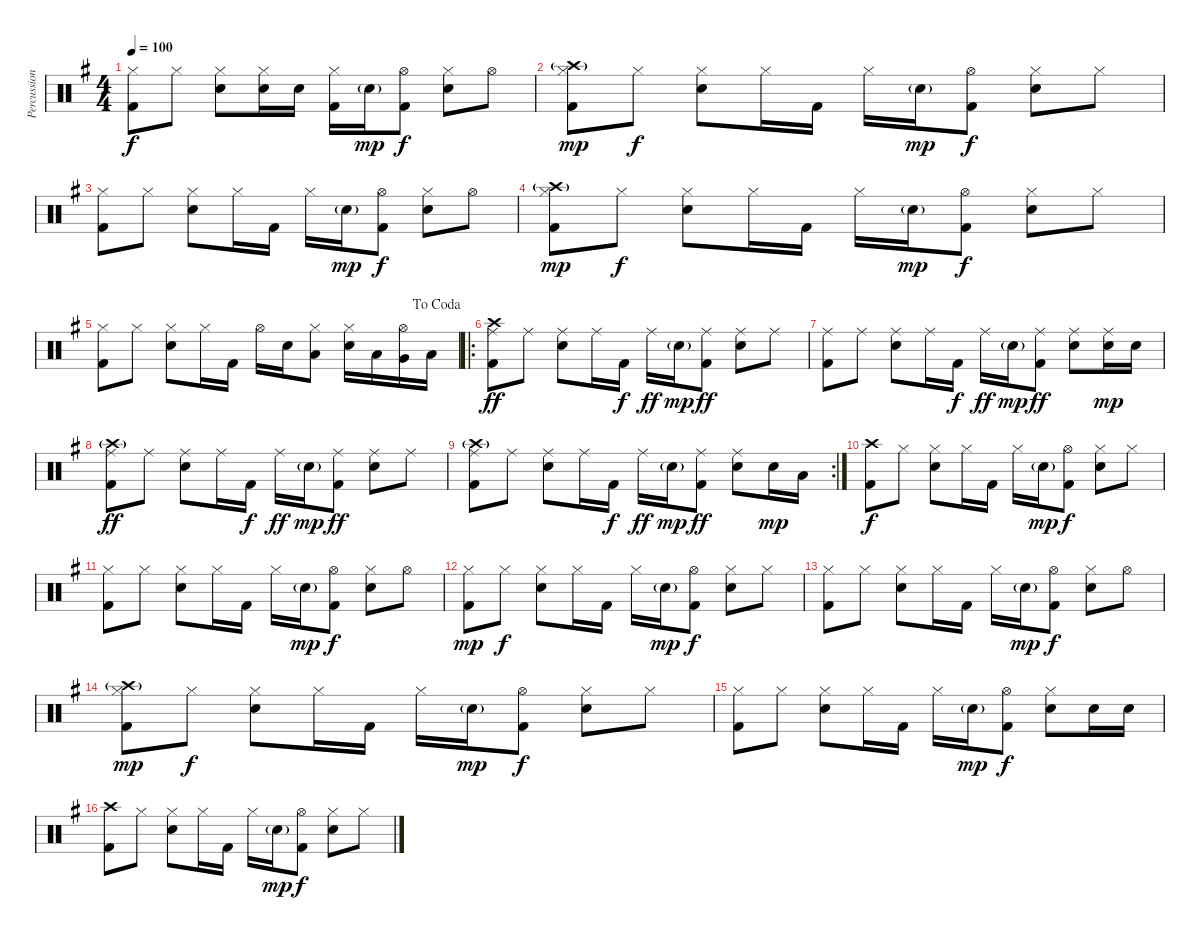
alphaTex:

\track ("Percussion" "Percussion") {instrument percussion}
\staff {score}
\articulation defaults
\ts (4 4)
\tempo 100
\clef neutral
\ks g
("Hi-Hat (closed)" "Kick (hit) 2").8{dy f} "Hi-Hat (closed)".8 ("Hi-Hat (closed)" "Electric Snare (hit)").8 ("Hi-Hat (closed)" "Electric Snare (hit)").16 "Electric Snare (hit)".16 ("Hi-Hat (closed)" "Kick (hit) 2").16 "Electric Snare (hit)"{g}.16{dy mp} ("Hi-Hat (open)" "Kick (hit) 2").8{dy f} ("Hi-Hat (closed)" "Electric Snare (hit)").8 "Hi-Hat (open)".8 |
("Crash high (hit)"{g} "Hi-Hat (closed)" "Kick (hit) 2").8{dy mp} "Hi-Hat (closed)".8{dy f} ("Hi-Hat (closed)" "Electric Snare (hit)").8 "Hi-Hat (closed)".16 "Kick (hit) 2".16 "Hi-Hat (closed)".16 "Electric Snare (hit)"{g}.16{dy mp} ("Hi-Hat (open)" "Kick (hit) 2").8{dy f} ("Hi-Hat (closed)" "Electric Snare (hit)").8 "Hi-Hat (closed)".8 |
("Hi-Hat (closed)" "Kick (hit) 2").8 "Hi-Hat (closed)".8 ("Hi-Hat (closed)" "Electric Snare (hit)").8 "Hi-Hat (closed)".16 "Kick (hit) 2".16 "Hi-Hat (closed)".16 "Electric Snare (hit)"{g}.16{dy mp} ("Hi-Hat (open)" "Kick (hit) 2").8{dy f} ("Hi-Hat (closed)" "Electric Snare (hit)").8 "Hi-Hat (open)".8 |
("Crash high (hit)"{g} "Hi-Hat (closed)" "Kick (hit) 2").8{dy mp} "Hi-Hat (closed)".8{dy f} ("Hi-Hat (closed)" "Electric Snare (hit)").8 "Hi-Hat (closed)".16 "Kick (hit) 2".16 "Hi-Hat (closed)".16 "Electric Snare (hit)"{g}.16{dy mp} ("Hi-Hat (open)" "Kick (hit) 2").8{dy f} ("Hi-Hat (closed)" "Electric Snare (hit)").8 "Hi-Hat (closed)".8 |
\jump dacoda
("Hi-Hat (closed)" "Kick (hit) 2").8 "Hi-Hat (closed)".8 ("Hi-Hat (closed)" "Electric Snare (hit)").8 "Hi-Hat (closed)".16 "Kick (hit) 2".16 "Hi-Hat (open)".16 "Electric Snare (hit)".16 ("Hi-Hat (closed)" "Low Floor Tom (hit)").8 ("Hi-Hat (closed)" "Electric Snare (hit)").16 "Low Tom (hit)".16 ("Hi-Hat (open)" "Very Low Tom (hit)").16 "Low Floor Tom (hit)".16 |
\ro
("Crash high (hit)" "Ride (middle)" "Kick (hit) 2").8{dy ff} "Ride (middle)".8 ("Ride (middle)" "Electric Snare (hit)").8 "Ride (middle)".16 "Kick (hit) 2".16{dy f} "Ride (middle)".16{dy ff} "Electric Snare (hit)"{g}.16{dy mp} ("Ride (middle)" "Kick (hit) 2").8{dy ff} ("Ride (middle)" "Electric Snare (hit)").8 "Ride (middle)".8 |
("Ride (middle)" "Kick (hit) 2").8 "Ride (middle)".8 ("Ride (middle)" "Electric Snare (hit)").8 "Ride (middle)".16 "Kick (hit) 2".16{dy f} "Ride (middle)".16{dy ff} "Electric Snare (hit)"{g}.16{dy mp} ("Ride (middle)" "Kick (hit) 2").8{dy ff} ("Ride (middle)" "Electric Snare (hit)").8 ("Ride (middle)" "Electric Snare (hit)").16{dy mp} "Electric Snare (hit)".16 |
("Crash high (hit)"{g} "Ride (middle)" "Kick (hit) 2").8{dy ff} "Ride (middle)".8 ("Ride (middle)" "Electric Snare (hit)").8 "Ride (middle)".16 "Kick (hit) 2".16{dy f} "Ride (middle)".16{dy ff} "Electric Snare (hit)"{g}.16{dy mp} ("Ride (middle)" "Kick (hit) 2").8{dy ff} ("Ride (middle)" "Electric Snare (hit)").8 "Ride (middle)".8 |
\rc 2
("Crash high (hit)"{g} "Ride (middle)" "Kick (hit) 2").8 "Ride (middle)".8 ("Ride (middle)" "Electric Snare (hit)").8 "Ride (middle)".16 "Kick (hit) 2".16{dy f} "Ride (middle)".16{dy ff} "Electric Snare (hit)"{g}.16{dy mp} ("Ride (middle)" "Kick (hit) 2").8{dy ff} ("Ride (middle)" "Electric Snare (hit)").8 "Electric Snare (hit)".16{dy mp} "Low Floor Tom (hit)".16 |
("Crash high (hit)" "Kick (hit) 2").8{dy f} "Hi-Hat (closed)".8 ("Hi-Hat (closed)" "Electric Snare (hit)").8 "Hi-Hat (closed)".16 "Kick (hit) 2".16 "Hi-Hat (closed)".16 "Electric Snare (hit)"{g}.16{dy mp} ("Hi-Hat (open)" "Kick (hit) 2").8{dy f} ("Hi-Hat (closed)" "Electric Snare (hit)").8 "Hi-Hat (closed)".8 |
("Hi-Hat (closed)" "Kick (hit) 2").8 "Hi-Hat (closed)".8 ("Hi-Hat (closed)" "Electric Snare (hit)").8 "Hi-Hat (closed)".16 "Kick (hit) 2".16 "Hi-Hat (closed)".16 "Electric Snare (hit)"{g}.16{dy mp} ("Hi-Hat (open)" "Kick (hit) 2").8{dy f} ("Hi-Hat (closed)" "Electric Snare (hit)").8 "Hi-Hat (open)".8 |
("Hi-Hat (closed)" "Kick (hit) 2").8{dy mp} "Hi-Hat (closed)".8{dy f} ("Hi-Hat (closed)" "Electric Snare (hit)").8 "Hi-Hat (closed)".16 "Kick (hit) 2".16 "Hi-Hat (closed)".16 "Electric Snare (hit)"{g}.16{dy mp} ("Hi-Hat (open)" "Kick (hit) 2").8{dy f} ("Hi-Hat (closed)" "Electric Snare (hit)").8 "Hi-Hat (closed)".8 |
("Hi-Hat (closed)" "Kick (hit) 2").8 "Hi-Hat (closed)".8 ("Hi-Hat (closed)" "Electric Snare (hit)").8 "Hi-Hat (closed)".16 "Kick (hit) 2".16 "Hi-Hat (closed)".16 "Electric Snare (hit)"{g}.16{dy mp} ("Hi-Hat (open)" "Kick (hit) 2").8{dy f} ("Hi-Hat (closed)" "Electric Snare (hit)").8 "Hi-Hat (open)".8 |
("Crash high (hit)"{g} "Hi-Hat (closed)" "Kick (hit) 2").8{dy mp} "Hi-Hat (closed)".8{dy f} ("Hi-Hat (closed)" "Electric Snare (hit)").8 "Hi-Hat (closed)".16 "Kick (hit) 2".16 "Hi-Hat (closed)".16 "Electric Snare (hit)"{g}.16{dy mp} ("Hi-Hat (open)" "Kick (hit) 2").8{dy f} ("Hi-Hat (closed)" "Electric Snare (hit)").8 "Hi-Hat (closed)".8 |
("Hi-Hat (closed)" "Kick (hit) 2").8 "Hi-Hat (closed)".8 ("Hi-Hat (closed)" "Electric Snare (hit)").8 "Hi-Hat (closed)".16 "Kick (hit) 2".16 "Hi-Hat (closed)".16 "Electric Snare (hit)"{g}.16{dy mp} ("Hi-Hat (open)" "Kick (hit) 2").8{dy f} ("Hi-Hat (closed)" "Electric Snare (hit)").8 "Electric Snare (hit)".16 "Electric Snare (hit)".16 |
("Crash high (hit)" "Kick (hit) 2").8 "Hi-Hat (closed)".8 ("Hi-Hat (closed)" "Electric Snare (hit)").8 "Hi-Hat (closed)".16 "Kick (hit) 2".16 "Hi-Hat (closed)".16 "Electric Snare (hit)"{g}.16{dy mp} ("Hi-Hat (open)" "Kick (hit) 2").8{dy f} ("Hi-Hat (closed)" "Electric Snare (hit)").8 "Hi-Hat (closed)".8
